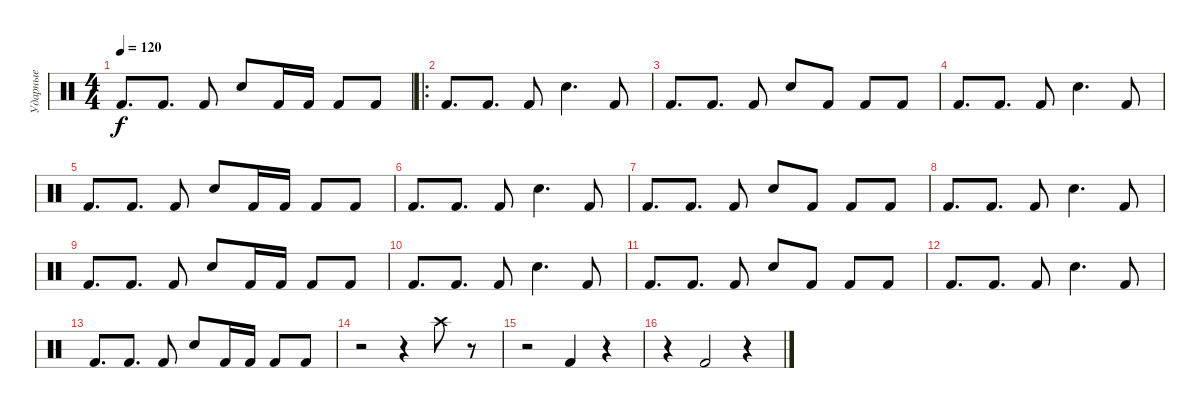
\track ("Ударные" "Ударные") {instrument percussion}
\staff {score}
\articulation defaults
\ts (4 4)
\tempo 120
\clef neutral
\ks c "Kick (hit) 2".8{d dy f} "Kick (hit) 2".8{d} "Kick (hit) 2".8 "Snare (hit) 2".8 "Kick (hit) 2".16 "Kick (hit) 2".16 "Kick (hit) 2".8 "Kick (hit) 2".8
|
\ro "Kick (hit) 2".8{d} "Kick (hit) 2".8{d} "Kick (hit) 2".8 "Snare (hit) 2".4{d} "Kick (hit) 2".8
|
"Kick (hit) 2".8{d} "Kick (hit) 2".8{d} "Kick (hit) 2".8 "Snare (hit) 2".8 "Kick (hit) 2".8 "Kick (hit) 2".8 "Kick (hit) 2".8 |
"Kick (hit) 2".8{d} "Kick (hit) 2".8{d} "Kick (hit) 2".8 "Snare (hit) 2".4{d} "Kick (hit) 2".8 |
"Kick (hit) 2".8{d} "Kick (hit) 2".8{d} "Kick (hit) 2".8 "Snare (hit) 2".8 "Kick (hit) 2".16 "Kick (hit) 2".16 "Kick (hit) 2".8 "Kick (hit) 2".8 |
"Kick (hit) 2".8{d} "Kick (hit) 2".8{d} "Kick (hit) 2".8 "Snare (hit) 2".4{d} "Kick (hit) 2".8 |
"Kick (hit) 2".8{d} "Kick (hit) 2".8{d} "Kick (hit) 2".8 "Snare (hit) 2".8 "Kick (hit) 2".8 "Kick (hit) 2".8 "Kick (hit) 2".8 |
"Kick (hit) 2".8{d} "Kick (hit) 2".8{d} "Kick (hit) 2".8 "Snare (hit) 2".4{d} "Kick (hit) 2".8 |
"Kick (hit) 2".8{d} "Kick (hit) 2".8{d} "Kick (hit) 2".8 "Snare (hit) 2".8 "Kick (hit) 2".16 "Kick (hit) 2".16 "Kick (hit) 2".8 "Kick (hit) 2".8 |
"Kick (hit) 2".8{d} "Kick (hit) 2".8{d} "Kick (hit) 2".8 "Snare (hit) 2".4{d} "Kick (hit) 2".8 |
"Kick (hit) 2".8{d} "Kick (hit) 2".8{d} "Kick (hit) 2".8 "Snare (hit) 2".8 "Kick (hit) 2".8 "Kick (hit) 2".8 "Kick (hit) 2".8 |
"Kick (hit) 2".8{d} "Kick (hit) 2".8{d} "Kick (hit) 2".8 "Snare (hit) 2".4{d} "Kick (hit) 2".8 |
"Kick (hit) 2".8{d} "Kick (hit) 2".8{d} "Kick (hit) 2".8 "Snare (hit) 2".8 "Kick (hit) 2".16 "Kick (hit) 2".16 "Kick (hit) 2".8 "Kick (hit) 2".8 |
r.2 r.4 "Crash high (hit)".8 r.8 |
r.2 "Kick (hit) 2".4 r.4 |
r.4 "Kick (hit) 2".2 r.4
